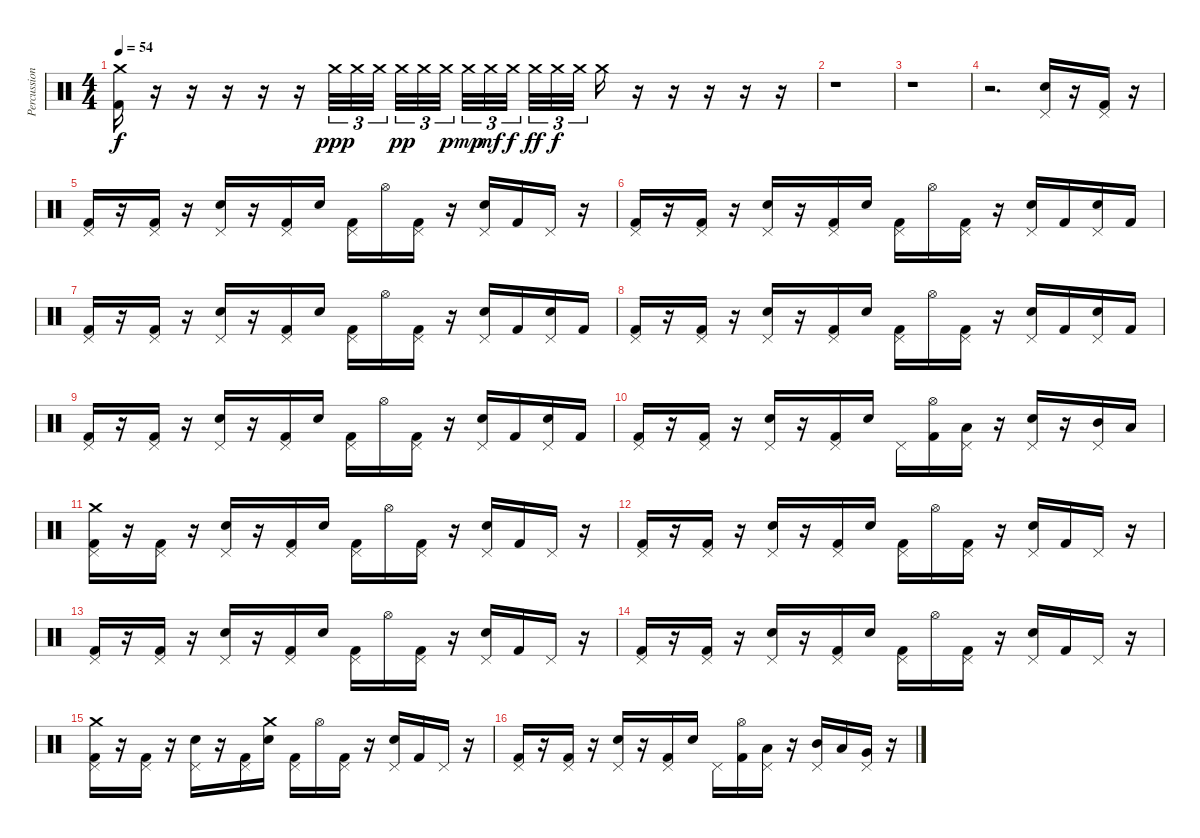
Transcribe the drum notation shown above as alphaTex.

\track ("Percussion" "Percussion") {instrument percussion}
\staff {score}
\articulation defaults
\ts (4 4)
\tempo 54
\clef neutral
\ks c
("Crash medium (hit)" "Kick (hit) 2").16{dy f} r.16 r.16 r.16 r.16 r.16 "Crash medium (hit)".32{tu (3 2) dy ppp} "Crash medium (hit)".32{tu (3 2)} "Crash medium (hit)".32{tu (3 2)} "Crash medium (hit)".32{tu (3 2) dy pp} "Crash medium (hit)".32{tu (3 2)} "Crash medium (hit)".32{tu (3 2) dy p} "Crash medium (hit)".32{tu (3 2) dy mp} "Crash medium (hit)".32{tu (3 2) dy mf} "Crash medium (hit)".32{tu (3 2) dy f} "Crash medium (hit)".32{tu (3 2) dy ff} "Crash medium (hit)".32{tu (3 2) dy f} "Crash medium (hit)".32{tu (3 2)} "Crash medium (hit)".16 r.16 r.16 r.16 r.16 r.16 |
r.1 |
r.1 |
r.2{d volume 0} ("Pedal Hi-Hat (hit)" "Snare (hit) 2").16{volume 9} r.16 ("Pedal Hi-Hat (hit)" "Kick (hit) 2").16 r.16 |
("Pedal Hi-Hat (hit)" "Kick (hit) 2").16 r.16 ("Pedal Hi-Hat (hit)" "Kick (hit) 2").16 r.16 ("Pedal Hi-Hat (hit)" "Snare (hit) 2").16 r.16 ("Pedal Hi-Hat (hit)" "Kick (hit) 2").16 "Snare (hit) 2".16 ("Pedal Hi-Hat (hit)" "Kick (hit) 2").16 "Hi-Hat (open)".16 ("Pedal Hi-Hat (hit)" "Kick (hit) 2").16 r.16 ("Pedal Hi-Hat (hit)" "Snare (hit) 2").16 "Kick (hit) 2".16 "Pedal Hi-Hat (hit)".16 r.16 |
("Pedal Hi-Hat (hit)" "Kick (hit) 2").16 r.16 ("Pedal Hi-Hat (hit)" "Kick (hit) 2").16 r.16 ("Pedal Hi-Hat (hit)" "Snare (hit) 2").16 r.16 ("Pedal Hi-Hat (hit)" "Kick (hit) 2").16 "Snare (hit) 2".16 ("Pedal Hi-Hat (hit)" "Kick (hit) 2").16 "Hi-Hat (open)".16 ("Pedal Hi-Hat (hit)" "Kick (hit) 2").16 r.16 ("Pedal Hi-Hat (hit)" "Snare (hit) 2").16 "Kick (hit) 2".16 ("Pedal Hi-Hat (hit)" "Snare (hit) 2").16 "Kick (hit) 2".16 |
("Pedal Hi-Hat (hit)" "Kick (hit) 2").16 r.16 ("Pedal Hi-Hat (hit)" "Kick (hit) 2").16 r.16 ("Pedal Hi-Hat (hit)" "Snare (hit) 2").16 r.16 ("Pedal Hi-Hat (hit)" "Kick (hit) 2").16 "Snare (hit) 2".16 ("Pedal Hi-Hat (hit)" "Kick (hit) 2").16 "Hi-Hat (open)".16 ("Pedal Hi-Hat (hit)" "Kick (hit) 2").16 r.16 ("Pedal Hi-Hat (hit)" "Snare (hit) 2").16 "Kick (hit) 2".16 ("Pedal Hi-Hat (hit)" "Snare (hit) 2").16 "Kick (hit) 2".16 |
("Pedal Hi-Hat (hit)" "Kick (hit) 2").16 r.16 ("Pedal Hi-Hat (hit)" "Kick (hit) 2").16 r.16 ("Pedal Hi-Hat (hit)" "Snare (hit) 2").16 r.16 ("Pedal Hi-Hat (hit)" "Kick (hit) 2").16 "Snare (hit) 2".16 ("Pedal Hi-Hat (hit)" "Kick (hit) 2").16 "Hi-Hat (open)".16 ("Pedal Hi-Hat (hit)" "Kick (hit) 2").16 r.16 ("Pedal Hi-Hat (hit)" "Snare (hit) 2").16 "Kick (hit) 2".16 ("Pedal Hi-Hat (hit)" "Snare (hit) 2").16 "Kick (hit) 2".16 |
("Pedal Hi-Hat (hit)" "Kick (hit) 2").16 r.16 ("Pedal Hi-Hat (hit)" "Kick (hit) 2").16 r.16 ("Pedal Hi-Hat (hit)" "Snare (hit) 2").16 r.16 ("Pedal Hi-Hat (hit)" "Kick (hit) 2").16 "Snare (hit) 2".16 ("Pedal Hi-Hat (hit)" "Kick (hit) 2").16 "Hi-Hat (open)".16 ("Pedal Hi-Hat (hit)" "Kick (hit) 2").16 r.16 ("Pedal Hi-Hat (hit)" "Snare (hit) 2").16 "Kick (hit) 2".16 ("Pedal Hi-Hat (hit)" "Snare (hit) 2").16 "Kick (hit) 2".16 |
("Pedal Hi-Hat (hit)" "Kick (hit) 2").16 r.16 ("Pedal Hi-Hat (hit)" "Kick (hit) 2").16 r.16 ("Pedal Hi-Hat (hit)" "Snare (hit) 2").16 r.16 ("Pedal Hi-Hat (hit)" "Kick (hit) 2").16 "Snare (hit) 2".16 "Pedal Hi-Hat (hit)".16 ("Hi-Hat (open)" "Kick (hit) 2").16 ("Pedal Hi-Hat (hit)" "Low Tom (hit)").16 r.16 ("Pedal Hi-Hat (hit)" "Snare (hit) 2").16 r.16 ("Pedal Hi-Hat (hit)" "Mid Tom (hit)").16 "Low Tom (hit)".16 |
("Crash medium (hit)" "Pedal Hi-Hat (hit)" "Kick (hit) 2").16 r.16 ("Pedal Hi-Hat (hit)" "Kick (hit) 2").16 r.16 ("Pedal Hi-Hat (hit)" "Snare (hit) 2").16 r.16 ("Pedal Hi-Hat (hit)" "Kick (hit) 2").16 "Snare (hit) 2".16 ("Pedal Hi-Hat (hit)" "Kick (hit) 2").16 "Hi-Hat (open)".16 ("Pedal Hi-Hat (hit)" "Kick (hit) 2").16 r.16 ("Pedal Hi-Hat (hit)" "Snare (hit) 2").16 "Kick (hit) 2".16 "Pedal Hi-Hat (hit)".16 r.16 |
("Pedal Hi-Hat (hit)" "Kick (hit) 2").16 r.16 ("Pedal Hi-Hat (hit)" "Kick (hit) 2").16 r.16 ("Pedal Hi-Hat (hit)" "Snare (hit) 2").16 r.16 ("Pedal Hi-Hat (hit)" "Kick (hit) 2").16 "Snare (hit) 2".16 ("Pedal Hi-Hat (hit)" "Kick (hit) 2").16 "Hi-Hat (open)".16 ("Pedal Hi-Hat (hit)" "Kick (hit) 2").16 r.16 ("Pedal Hi-Hat (hit)" "Snare (hit) 2").16 "Kick (hit) 2".16 "Pedal Hi-Hat (hit)".16 r.16 |
("Pedal Hi-Hat (hit)" "Kick (hit) 2").16 r.16 ("Pedal Hi-Hat (hit)" "Kick (hit) 2").16 r.16 ("Pedal Hi-Hat (hit)" "Snare (hit) 2").16 r.16 ("Pedal Hi-Hat (hit)" "Kick (hit) 2").16 "Snare (hit) 2".16 ("Pedal Hi-Hat (hit)" "Kick (hit) 2").16 "Hi-Hat (open)".16 ("Pedal Hi-Hat (hit)" "Kick (hit) 2").16 r.16 ("Pedal Hi-Hat (hit)" "Snare (hit) 2").16 "Kick (hit) 2".16 "Pedal Hi-Hat (hit)".16 r.16 |
("Pedal Hi-Hat (hit)" "Kick (hit) 2").16 r.16 ("Pedal Hi-Hat (hit)" "Kick (hit) 2").16 r.16 ("Pedal Hi-Hat (hit)" "Snare (hit) 2").16 r.16 ("Pedal Hi-Hat (hit)" "Kick (hit) 2").16 "Snare (hit) 2".16 ("Pedal Hi-Hat (hit)" "Kick (hit) 2").16 "Hi-Hat (open)".16 ("Pedal Hi-Hat (hit)" "Kick (hit) 2").16 r.16 ("Pedal Hi-Hat (hit)" "Snare (hit) 2").16 "Kick (hit) 2".16 "Pedal Hi-Hat (hit)".16 r.16 |
("Crash medium (hit)" "Pedal Hi-Hat (hit)" "Kick (hit) 2").16 r.16 ("Pedal Hi-Hat (hit)" "Kick (hit) 2").16 r.16 ("Pedal Hi-Hat (hit)" "Snare (hit) 2").16 r.16 ("Pedal Hi-Hat (hit)" "Kick (hit) 2").16 ("Crash medium (hit)" "Snare (hit) 2").16 ("Pedal Hi-Hat (hit)" "Kick (hit) 2").16 "Hi-Hat (open)".16 ("Pedal Hi-Hat (hit)" "Kick (hit) 2").16 r.16 ("Pedal Hi-Hat (hit)" "Snare (hit) 2").16 "Kick (hit) 2".16 "Pedal Hi-Hat (hit)".16 r.16 |
("Pedal Hi-Hat (hit)" "Kick (hit) 2").16 r.16 ("Pedal Hi-Hat (hit)" "Kick (hit) 2").16 r.16 ("Pedal Hi-Hat (hit)" "Snare (hit) 2").16 r.16 ("Pedal Hi-Hat (hit)" "Kick (hit) 2").16 "Snare (hit) 2".16 "Pedal Hi-Hat (hit)".16 ("Hi-Hat (open)" "Kick (hit) 2").16 ("Pedal Hi-Hat (hit)" "Low Tom (hit)").16 r.16 ("Pedal Hi-Hat (hit)" "Mid Tom (hit)").16 "Low Tom (hit)".16 ("Pedal Hi-Hat (hit)" "Very Low Tom (hit)").16 r.16
